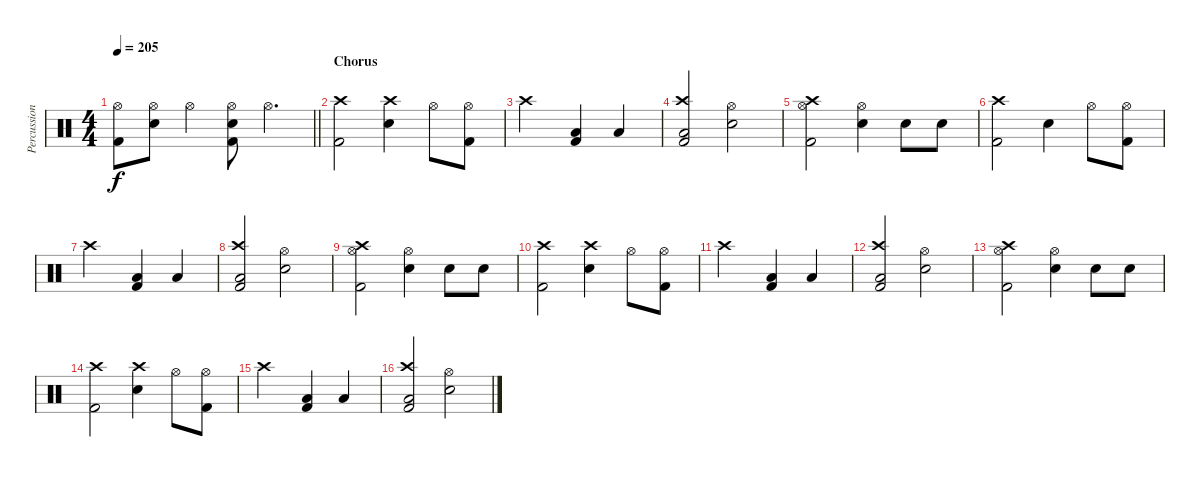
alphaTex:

\track ("Percussion" "Percussion") {instrument percussion}
\staff {score}
\articulation defaults
\ts (4 4)
\tempo 205
\clef neutral
\barLineRight lightlight
\ks c
("Hi-Hat (open)" "Kick (hit) 2").8{dy f} ("Electric Snare (hit)" "Hi-Hat (open)").8 "Hi-Hat (open)".4 ("Electric Snare (hit)" "Hi-Hat (open)" "Kick (hit) 2").8 "Hi-Hat (open)".4{d} |
\section ("" "Chorus")
("Crash high (hit)" "Kick (hit) 2").2 ("Crash high (hit)" "Electric Snare (hit)").4 "Hi-Hat (open)".8 ("Hi-Hat (open)" "Kick (hit) 2").8 |
"Crash high (hit)".2 ("Low Floor Tom (hit)" "Kick (hit) 2").4 "Low Floor Tom (hit)".4 |
("Crash high (hit)" "Low Floor Tom (hit)" "Kick (hit) 2").2 ("Electric Snare (hit)" "Hi-Hat (open)").2 |
("Crash high (hit)" "Hi-Hat (open)" "Kick (hit) 2").2 ("Electric Snare (hit)" "Hi-Hat (open)").4 "Electric Snare (hit)".8 "Electric Snare (hit)".8 |
("Crash high (hit)" "Kick (hit) 2").2 "Electric Snare (hit)".4 "Hi-Hat (open)".8 ("Hi-Hat (open)" "Kick (hit) 2").8 |
"Crash high (hit)".2 ("Low Floor Tom (hit)" "Kick (hit) 2").4 "Low Floor Tom (hit)".4 |
("Crash high (hit)" "Low Floor Tom (hit)" "Kick (hit) 2").2 ("Electric Snare (hit)" "Hi-Hat (open)").2 |
("Crash high (hit)" "Hi-Hat (open)" "Kick (hit) 2").2 ("Electric Snare (hit)" "Hi-Hat (open)").4 "Electric Snare (hit)".8 "Electric Snare (hit)".8 |
("Crash high (hit)" "Kick (hit) 2").2 ("Crash high (hit)" "Electric Snare (hit)").4 "Hi-Hat (open)".8 ("Hi-Hat (open)" "Kick (hit) 2").8 |
"Crash high (hit)".2 ("Low Floor Tom (hit)" "Kick (hit) 2").4 "Low Floor Tom (hit)".4 |
("Crash high (hit)" "Low Floor Tom (hit)" "Kick (hit) 2").2 ("Electric Snare (hit)" "Hi-Hat (open)").2 |
("Crash high (hit)" "Hi-Hat (open)" "Kick (hit) 2").2 ("Electric Snare (hit)" "Hi-Hat (open)").4 "Electric Snare (hit)".8 "Electric Snare (hit)".8 |
("Crash high (hit)" "Kick (hit) 2").2 ("Crash high (hit)" "Electric Snare (hit)").4 "Hi-Hat (open)".8 ("Hi-Hat (open)" "Kick (hit) 2").8 |
"Crash high (hit)".2 ("Low Floor Tom (hit)" "Kick (hit) 2").4 "Low Floor Tom (hit)".4 |
("Crash high (hit)" "Low Floor Tom (hit)" "Kick (hit) 2").2 ("Electric Snare (hit)" "Hi-Hat (open)").2
